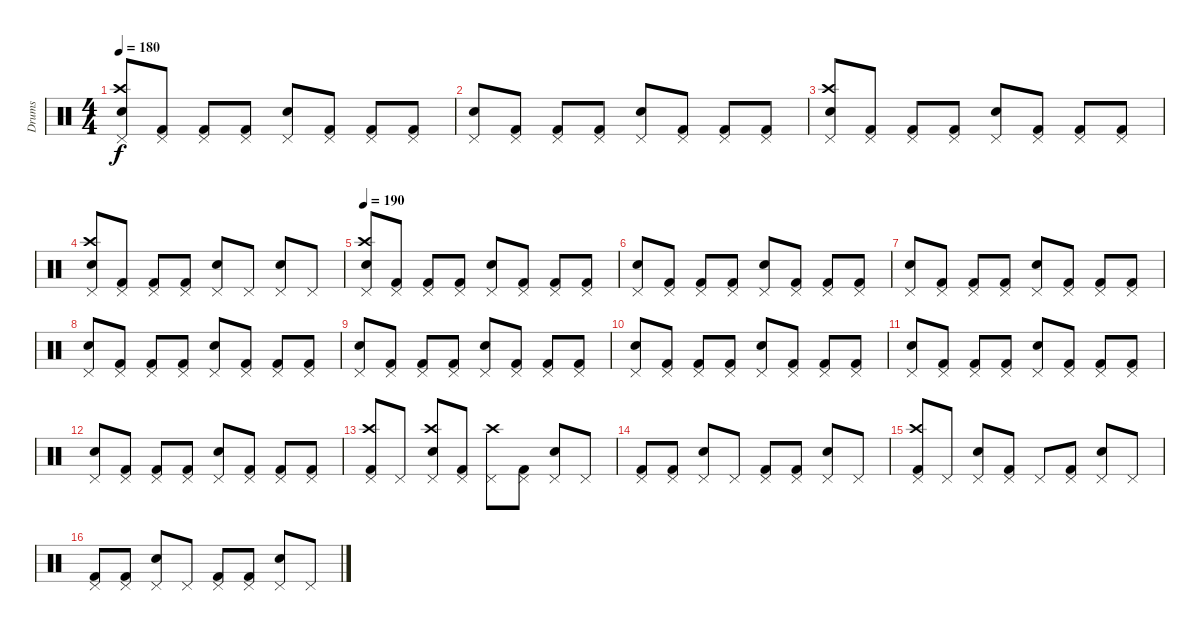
\track ("Drums" "Drums") {instrument percussion}
\staff {score}
\articulation defaults
\ts (4 4)
\tempo 180
\clef neutral
\ks c
("Pedal Hi-Hat (hit)" "Crash high (hit)" "Snare (hit) 2").8{dy f} ("Pedal Hi-Hat (hit)" "Kick (hit) 2").8 ("Pedal Hi-Hat (hit)" "Kick (hit) 2").8 ("Pedal Hi-Hat (hit)" "Kick (hit) 2").8 ("Pedal Hi-Hat (hit)" "Snare (hit) 2").8 ("Pedal Hi-Hat (hit)" "Kick (hit) 2").8 ("Pedal Hi-Hat (hit)" "Kick (hit) 2").8 ("Pedal Hi-Hat (hit)" "Kick (hit) 2").8 |
("Pedal Hi-Hat (hit)" "Snare (hit) 2").8 ("Pedal Hi-Hat (hit)" "Kick (hit) 2").8 ("Pedal Hi-Hat (hit)" "Kick (hit) 2").8 ("Pedal Hi-Hat (hit)" "Kick (hit) 2").8 ("Pedal Hi-Hat (hit)" "Snare (hit) 2").8 ("Pedal Hi-Hat (hit)" "Kick (hit) 2").8 ("Pedal Hi-Hat (hit)" "Kick (hit) 2").8 ("Pedal Hi-Hat (hit)" "Kick (hit) 2").8 |
("Pedal Hi-Hat (hit)" "Crash high (hit)" "Snare (hit) 2").8 ("Pedal Hi-Hat (hit)" "Kick (hit) 2").8 ("Pedal Hi-Hat (hit)" "Kick (hit) 2").8 ("Pedal Hi-Hat (hit)" "Kick (hit) 2").8 ("Pedal Hi-Hat (hit)" "Snare (hit) 2").8 ("Pedal Hi-Hat (hit)" "Kick (hit) 2").8 ("Pedal Hi-Hat (hit)" "Kick (hit) 2").8 ("Pedal Hi-Hat (hit)" "Kick (hit) 2").8 |
("Pedal Hi-Hat (hit)" "Crash high (hit)" "Snare (hit) 2").8 ("Pedal Hi-Hat (hit)" "Kick (hit) 2").8 ("Pedal Hi-Hat (hit)" "Kick (hit) 2").8 ("Pedal Hi-Hat (hit)" "Kick (hit) 2").8 ("Pedal Hi-Hat (hit)" "Snare (hit) 2").8 "Pedal Hi-Hat (hit)".8 ("Pedal Hi-Hat (hit)" "Snare (hit) 2").8 "Pedal Hi-Hat (hit)".8 |
\tempo 190
("Pedal Hi-Hat (hit)" "Crash high (hit)" "Snare (hit) 2").8 ("Pedal Hi-Hat (hit)" "Kick (hit) 2").8 ("Pedal Hi-Hat (hit)" "Kick (hit) 2").8 ("Pedal Hi-Hat (hit)" "Kick (hit) 2").8 ("Pedal Hi-Hat (hit)" "Snare (hit) 2").8 ("Pedal Hi-Hat (hit)" "Kick (hit) 2").8 ("Pedal Hi-Hat (hit)" "Kick (hit) 2").8 ("Pedal Hi-Hat (hit)" "Kick (hit) 2").8 |
("Pedal Hi-Hat (hit)" "Snare (hit) 2").8 ("Pedal Hi-Hat (hit)" "Kick (hit) 2").8 ("Pedal Hi-Hat (hit)" "Kick (hit) 2").8 ("Pedal Hi-Hat (hit)" "Kick (hit) 2").8 ("Pedal Hi-Hat (hit)" "Snare (hit) 2").8 ("Pedal Hi-Hat (hit)" "Kick (hit) 2").8 ("Pedal Hi-Hat (hit)" "Kick (hit) 2").8 ("Pedal Hi-Hat (hit)" "Kick (hit) 2").8 |
("Pedal Hi-Hat (hit)" "Snare (hit) 2").8 ("Pedal Hi-Hat (hit)" "Kick (hit) 2").8 ("Pedal Hi-Hat (hit)" "Kick (hit) 2").8 ("Pedal Hi-Hat (hit)" "Kick (hit) 2").8 ("Pedal Hi-Hat (hit)" "Snare (hit) 2").8 ("Pedal Hi-Hat (hit)" "Kick (hit) 2").8 ("Pedal Hi-Hat (hit)" "Kick (hit) 2").8 ("Pedal Hi-Hat (hit)" "Kick (hit) 2").8 |
("Pedal Hi-Hat (hit)" "Snare (hit) 2").8 ("Pedal Hi-Hat (hit)" "Kick (hit) 2").8 ("Pedal Hi-Hat (hit)" "Kick (hit) 2").8 ("Pedal Hi-Hat (hit)" "Kick (hit) 2").8 ("Pedal Hi-Hat (hit)" "Snare (hit) 2").8 ("Pedal Hi-Hat (hit)" "Kick (hit) 2").8 ("Pedal Hi-Hat (hit)" "Kick (hit) 2").8 ("Pedal Hi-Hat (hit)" "Kick (hit) 2").8 |
("Pedal Hi-Hat (hit)" "Snare (hit) 2").8 ("Pedal Hi-Hat (hit)" "Kick (hit) 2").8 ("Pedal Hi-Hat (hit)" "Kick (hit) 2").8 ("Pedal Hi-Hat (hit)" "Kick (hit) 2").8 ("Pedal Hi-Hat (hit)" "Snare (hit) 2").8 ("Pedal Hi-Hat (hit)" "Kick (hit) 2").8 ("Pedal Hi-Hat (hit)" "Kick (hit) 2").8 ("Pedal Hi-Hat (hit)" "Kick (hit) 2").8 |
("Pedal Hi-Hat (hit)" "Snare (hit) 2").8 ("Pedal Hi-Hat (hit)" "Kick (hit) 2").8 ("Pedal Hi-Hat (hit)" "Kick (hit) 2").8 ("Pedal Hi-Hat (hit)" "Kick (hit) 2").8 ("Pedal Hi-Hat (hit)" "Snare (hit) 2").8 ("Pedal Hi-Hat (hit)" "Kick (hit) 2").8 ("Pedal Hi-Hat (hit)" "Kick (hit) 2").8 ("Pedal Hi-Hat (hit)" "Kick (hit) 2").8 |
("Pedal Hi-Hat (hit)" "Snare (hit) 2").8 ("Pedal Hi-Hat (hit)" "Kick (hit) 2").8 ("Pedal Hi-Hat (hit)" "Kick (hit) 2").8 ("Pedal Hi-Hat (hit)" "Kick (hit) 2").8 ("Pedal Hi-Hat (hit)" "Snare (hit) 2").8 ("Pedal Hi-Hat (hit)" "Kick (hit) 2").8 ("Pedal Hi-Hat (hit)" "Kick (hit) 2").8 ("Pedal Hi-Hat (hit)" "Kick (hit) 2").8 |
("Pedal Hi-Hat (hit)" "Snare (hit) 2").8 ("Pedal Hi-Hat (hit)" "Kick (hit) 2").8 ("Pedal Hi-Hat (hit)" "Kick (hit) 2").8 ("Pedal Hi-Hat (hit)" "Kick (hit) 2").8 ("Pedal Hi-Hat (hit)" "Snare (hit) 2").8 ("Pedal Hi-Hat (hit)" "Kick (hit) 2").8 ("Pedal Hi-Hat (hit)" "Kick (hit) 2").8 ("Pedal Hi-Hat (hit)" "Kick (hit) 2").8 |
("Pedal Hi-Hat (hit)" "Crash high (hit)" "Kick (hit) 2").8 "Pedal Hi-Hat (hit)".8 ("Pedal Hi-Hat (hit)" "Crash high (hit)" "Snare (hit) 2").8 ("Pedal Hi-Hat (hit)" "Kick (hit) 2").8 ("Pedal Hi-Hat (hit)" "Crash high (hit)").8 ("Pedal Hi-Hat (hit)" "Kick (hit) 2").8 ("Pedal Hi-Hat (hit)" "Snare (hit) 2").8 "Pedal Hi-Hat (hit)".8 |
("Pedal Hi-Hat (hit)" "Kick (hit) 2").8 ("Pedal Hi-Hat (hit)" "Kick (hit) 2").8 ("Pedal Hi-Hat (hit)" "Snare (hit) 2").8 "Pedal Hi-Hat (hit)".8 ("Pedal Hi-Hat (hit)" "Kick (hit) 2").8 ("Pedal Hi-Hat (hit)" "Kick (hit) 2").8 ("Pedal Hi-Hat (hit)" "Snare (hit) 2").8 "Pedal Hi-Hat (hit)".8 |
("Pedal Hi-Hat (hit)" "Crash high (hit)" "Kick (hit) 2").8 "Pedal Hi-Hat (hit)".8 ("Pedal Hi-Hat (hit)" "Snare (hit) 2").8 ("Pedal Hi-Hat (hit)" "Kick (hit) 2").8 "Pedal Hi-Hat (hit)".8 ("Pedal Hi-Hat (hit)" "Kick (hit) 2").8 ("Pedal Hi-Hat (hit)" "Snare (hit) 2").8 "Pedal Hi-Hat (hit)".8 |
("Pedal Hi-Hat (hit)" "Kick (hit) 2").8 ("Pedal Hi-Hat (hit)" "Kick (hit) 2").8 ("Pedal Hi-Hat (hit)" "Snare (hit) 2").8 "Pedal Hi-Hat (hit)".8 ("Pedal Hi-Hat (hit)" "Kick (hit) 2").8 ("Pedal Hi-Hat (hit)" "Kick (hit) 2").8 ("Pedal Hi-Hat (hit)" "Snare (hit) 2").8 "Pedal Hi-Hat (hit)".8
